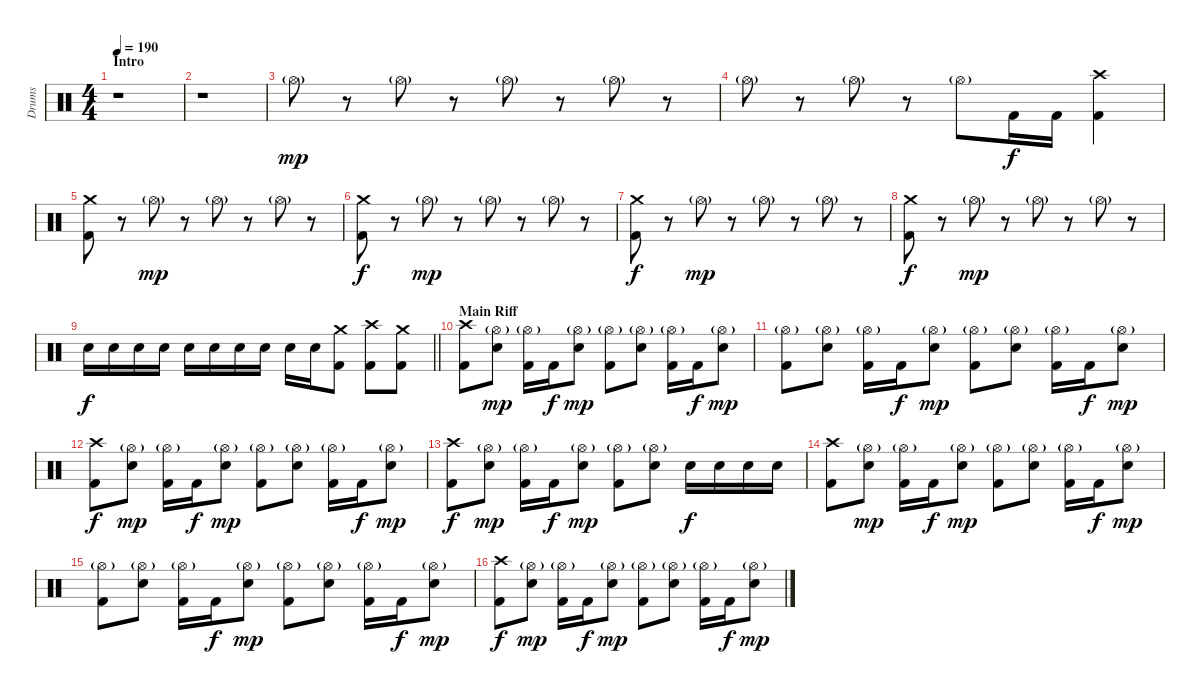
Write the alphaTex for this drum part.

\track ("Drums" "Drums") {instrument percussion}
\staff {score}
\articulation defaults
\ts (4 4)
\section ("" "Intro")
\tempo 190
\clef neutral
\ks c
r.1{dy mp} |
r.1 |
"Hi-Hat (open)"{g}.8 r.8 "Hi-Hat (open)"{g}.8 r.8 "Hi-Hat (open)"{g}.8 r.8 "Hi-Hat (open)"{g}.8 r.8 |
"Hi-Hat (open)"{g}.8 r.8 "Hi-Hat (open)"{g}.8 r.8 "Hi-Hat (open)"{g}.8 "Kick (hit) 2".16{dy f} "Kick (hit) 2".16 ("Crash high (hit)" "Kick (hit) 2").4 |
("Crash medium (hit)" "Kick (hit) 2").8 r.8 "Hi-Hat (open)"{g}.8{dy mp} r.8 "Hi-Hat (open)"{g}.8 r.8 "Hi-Hat (open)"{g}.8 r.8 |
("Crash medium (hit)" "Kick (hit) 2").8{dy f} r.8 "Hi-Hat (open)"{g}.8{dy mp} r.8 "Hi-Hat (open)"{g}.8 r.8 "Hi-Hat (open)"{g}.8 r.8 |
("Crash medium (hit)" "Kick (hit) 2").8{dy f} r.8 "Hi-Hat (open)"{g}.8{dy mp} r.8 "Hi-Hat (open)"{g}.8 r.8 "Hi-Hat (open)"{g}.8 r.8 |
("Crash medium (hit)" "Kick (hit) 2").8{dy f} r.8 "Hi-Hat (open)"{g}.8{dy mp} r.8 "Hi-Hat (open)"{g}.8 r.8 "Hi-Hat (open)"{g}.8 r.8 |
\barLineRight lightlight "Electric Snare (hit)".16{dy f} "Electric Snare (hit)".16 "Electric Snare (hit)".16 "Electric Snare (hit)".16 "Electric Snare (hit)".16 "Electric Snare (hit)".16 "Electric Snare (hit)".16 "Electric Snare (hit)".16 "Electric Snare (hit)".16 "Electric Snare (hit)".16
("Crash medium (hit)" "Kick (hit) 2").8 ("Crash high (hit)" "Kick (hit) 2").8 ("Crash medium (hit)" "Kick (hit) 2").8 |
\section ("" "Main Riff")
("Crash high (hit)" "Kick (hit) 2").8 ("Hi-Hat (open)"{g} "Electric Snare (hit)").8{dy mp} ("Hi-Hat (open)"{g} "Kick (hit) 2").16 "Kick (hit) 2".16{dy f} ("Hi-Hat (open)"{g} "Electric Snare (hit)").8{dy mp} ("Hi-Hat (open)"{g} "Kick (hit) 2").8 ("Hi-Hat (open)"{g} "Electric Snare (hit)").8 ("Hi-Hat (open)"{g} "Kick (hit) 2").16 "Kick (hit) 2".16{dy f} ("Hi-Hat (open)"{g} "Electric Snare (hit)").8{dy mp} |
("Hi-Hat (open)"{g} "Kick (hit) 2").8 ("Hi-Hat (open)"{g} "Electric Snare (hit)").8 ("Hi-Hat (open)"{g} "Kick (hit) 2").16 "Kick (hit) 2".16{dy f} ("Hi-Hat (open)"{g} "Electric Snare (hit)").8{dy mp} ("Hi-Hat (open)"{g} "Kick (hit) 2").8 ("Hi-Hat (open)"{g} "Electric Snare (hit)").8 ("Hi-Hat (open)"{g} "Kick (hit) 2").16 "Kick (hit) 2".16{dy f} ("Hi-Hat (open)"{g} "Electric Snare (hit)").8{dy mp} |
("Crash high (hit)" "Kick (hit) 2").8{dy f} ("Hi-Hat (open)"{g} "Electric Snare (hit)").8{dy mp} ("Hi-Hat (open)"{g} "Kick (hit) 2").16 "Kick (hit) 2".16{dy f} ("Hi-Hat (open)"{g} "Electric Snare (hit)").8{dy mp} ("Hi-Hat (open)"{g} "Kick (hit) 2").8 ("Hi-Hat (open)"{g} "Electric Snare (hit)").8 ("Hi-Hat (open)"{g} "Kick (hit) 2").16 "Kick (hit) 2".16{dy f} ("Hi-Hat (open)"{g} "Electric Snare (hit)").8{dy mp} |
("Crash high (hit)" "Kick (hit) 2").8{dy f} ("Hi-Hat (open)"{g} "Electric Snare (hit)").8{dy mp} ("Hi-Hat (open)"{g} "Kick (hit) 2").16 "Kick (hit) 2".16{dy f} ("Hi-Hat (open)"{g} "Electric Snare (hit)").8{dy mp} ("Hi-Hat (open)"{g} "Kick (hit) 2").8 ("Hi-Hat (open)"{g} "Electric Snare (hit)").8 "Electric Snare (hit)".16{dy f} "Electric Snare (hit)".16 "Electric Snare (hit)".16 "Electric Snare (hit)".16 |
("Crash high (hit)" "Kick (hit) 2").8 ("Hi-Hat (open)"{g} "Electric Snare (hit)").8{dy mp} ("Hi-Hat (open)"{g} "Kick (hit) 2").16 "Kick (hit) 2".16{dy f} ("Hi-Hat (open)"{g} "Electric Snare (hit)").8{dy mp} ("Hi-Hat (open)"{g} "Kick (hit) 2").8 ("Hi-Hat (open)"{g} "Electric Snare (hit)").8 ("Hi-Hat (open)"{g} "Kick (hit) 2").16 "Kick (hit) 2".16{dy f} ("Hi-Hat (open)"{g} "Electric Snare (hit)").8{dy mp} |
("Hi-Hat (open)"{g} "Kick (hit) 2").8 ("Hi-Hat (open)"{g} "Electric Snare (hit)").8 ("Hi-Hat (open)"{g} "Kick (hit) 2").16 "Kick (hit) 2".16{dy f} ("Hi-Hat (open)"{g} "Electric Snare (hit)").8{dy mp} ("Hi-Hat (open)"{g} "Kick (hit) 2").8 ("Hi-Hat (open)"{g} "Electric Snare (hit)").8 ("Hi-Hat (open)"{g} "Kick (hit) 2").16 "Kick (hit) 2".16{dy f} ("Hi-Hat (open)"{g} "Electric Snare (hit)").8{dy mp} |
("Crash high (hit)" "Kick (hit) 2").8{dy f} ("Hi-Hat (open)"{g} "Electric Snare (hit)").8{dy mp} ("Hi-Hat (open)"{g} "Kick (hit) 2").16 "Kick (hit) 2".16{dy f} ("Hi-Hat (open)"{g} "Electric Snare (hit)").8{dy mp} ("Hi-Hat (open)"{g} "Kick (hit) 2").8 ("Hi-Hat (open)"{g} "Electric Snare (hit)").8 ("Hi-Hat (open)"{g} "Kick (hit) 2").16 "Kick (hit) 2".16{dy f} ("Hi-Hat (open)"{g} "Electric Snare (hit)").8{dy mp}
